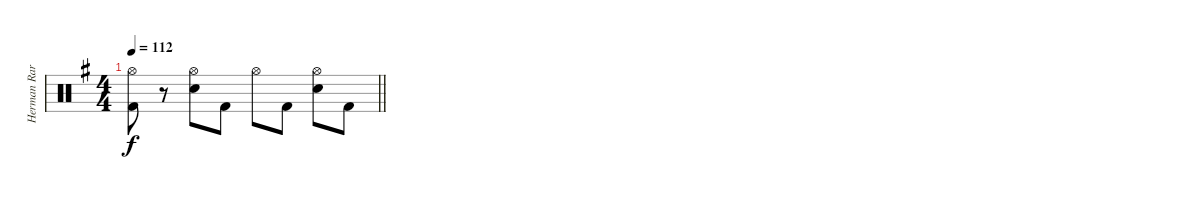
\track ("Herman Rarebell" "Herman Rar") {instrument percussion}
\staff {score}
\articulation defaults
\ts (4 4)
\tempo 112
\clef neutral
\barLineRight lightlight
\ks eminor
("Hi-Hat (open)" "Kick (hit) 2").8{dy f} r.8 ("Hi-Hat (open)" "Electric Snare (hit)").8 "Kick (hit) 2".8 "Hi-Hat (open)".8 "Kick (hit) 2".8 ("Hi-Hat (open)" "Electric Snare (hit)").8 "Kick (hit) 2".8
